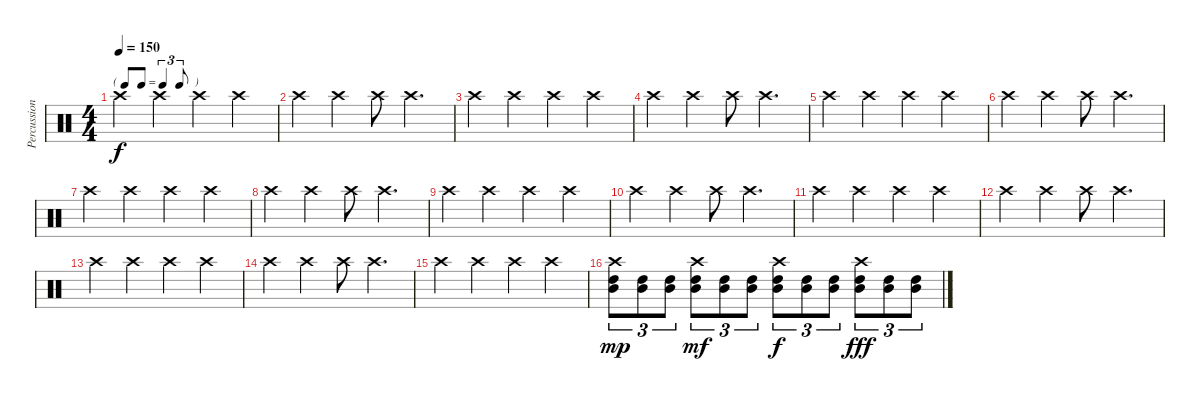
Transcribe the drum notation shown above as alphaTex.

\track ("Percussion" "Percussion") {instrument percussion}
\staff {score}
\articulation defaults
\ts (4 4)
\tf triplet8th
\tempo 150
\clef neutral
\ks c "Crash high (hit)".4{dy f} "Crash high (hit)".4 "Crash high (hit)".4 "Crash high (hit)".4
|
"Crash high (hit)".4 "Crash high (hit)".4 "Crash high (hit)".8 "Crash high (hit)".4{d} |
"Crash high (hit)".4 "Crash high (hit)".4 "Crash high (hit)".4 "Crash high (hit)".4 |
"Crash high (hit)".4 "Crash high (hit)".4 "Crash high (hit)".8 "Crash high (hit)".4{d} |
"Crash high (hit)".4 "Crash high (hit)".4 "Crash high (hit)".4 "Crash high (hit)".4 |
"Crash high (hit)".4 "Crash high (hit)".4 "Crash high (hit)".8 "Crash high (hit)".4{d} |
"Crash high (hit)".4 "Crash high (hit)".4 "Crash high (hit)".4 "Crash high (hit)".4 |
"Crash high (hit)".4 "Crash high (hit)".4 "Crash high (hit)".8 "Crash high (hit)".4{d} |
"Crash high (hit)".4 "Crash high (hit)".4 "Crash high (hit)".4 "Crash high (hit)".4 |
"Crash high (hit)".4 "Crash high (hit)".4 "Crash high (hit)".8 "Crash high (hit)".4{d} |
"Crash high (hit)".4 "Crash high (hit)".4 "Crash high (hit)".4 "Crash high (hit)".4 |
"Crash high (hit)".4 "Crash high (hit)".4 "Crash high (hit)".8 "Crash high (hit)".4{d} |
"Crash high (hit)".4 "Crash high (hit)".4 "Crash high (hit)".4 "Crash high (hit)".4 |
"Crash high (hit)".4 "Crash high (hit)".4 "Crash high (hit)".8 "Crash high (hit)".4{d} |
"Crash high (hit)".4 "Crash high (hit)".4 "Crash high (hit)".4 "Crash high (hit)".4 |
("High Tom (hit)" "Mid Tom (hit)" "Crash high (hit)").8{tu (3 2) dy mp} ("High Tom (hit)" "Mid Tom (hit)").8{tu (3 2)} ("High Tom (hit)" "Mid Tom (hit)").8{tu (3 2)} ("High Tom (hit)" "Mid Tom (hit)" "Crash high (hit)").8{tu (3 2) dy mf} ("High Tom (hit)" "Mid Tom (hit)").8{tu (3 2)} ("High Tom (hit)" "Mid Tom (hit)").8{tu (3 2)} ("High Tom (hit)" "Mid Tom (hit)" "Crash high (hit)").8{tu (3 2) dy f} ("High Tom (hit)" "Mid Tom (hit)").8{tu (3 2)} ("High Tom (hit)" "Mid Tom (hit)").8{tu (3 2)} ("High Tom (hit)" "Mid Tom (hit)" "Crash high (hit)").8{tu (3 2) dy fff} ("High Tom (hit)" "Mid Tom (hit)").8{tu (3 2)} ("High Tom (hit)" "Mid Tom (hit)").8{tu (3 2)}
